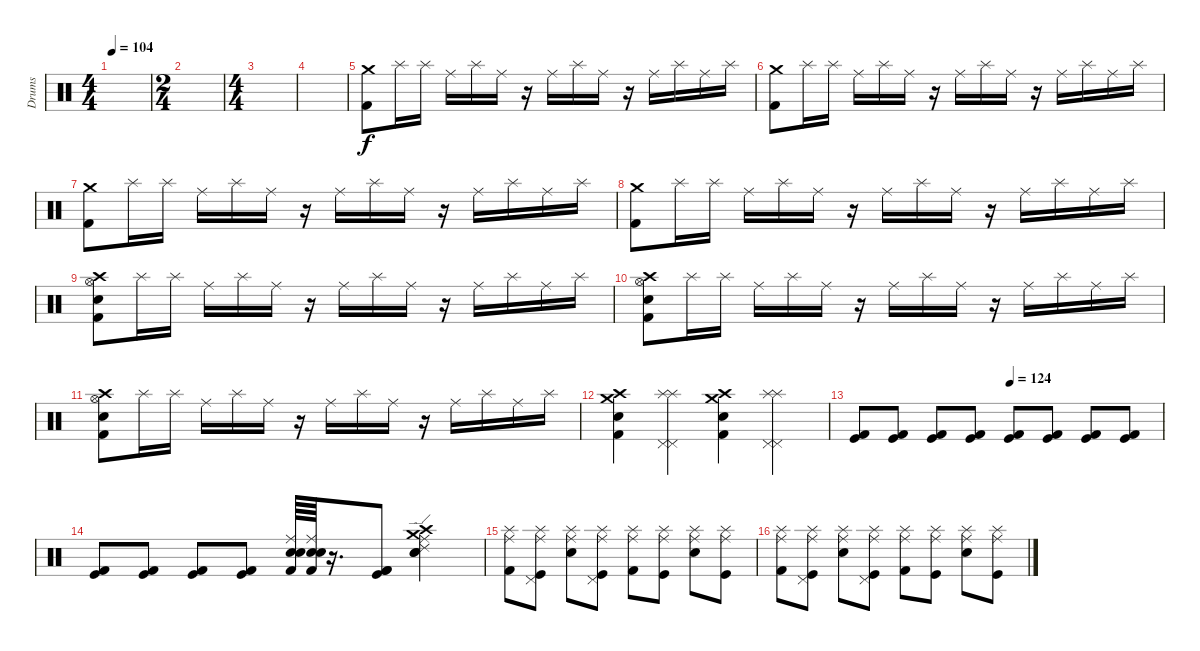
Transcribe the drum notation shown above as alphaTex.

\track ("Drums " "Drums ") {instrument percussion}
\staff {score}
\articulation defaults
\ts (4 4)
\section ("" "")
\tempo 104
\clef neutral
\ks c
|
\ts (2 4)
|
\ts (4 4)
|
|
("Crash medium (hit)" "Kick (hit) 2").8 "Splash (hit)".16 "Splash (hit)".16 "Ride (middle)".16 "Splash (hit)".16 "Ride (middle)".16 r.16 "Ride (middle)".16 "Splash (hit)".16 "Ride (middle)".16 r.16 "Ride (middle)".16 "Splash (hit)".16 "Ride (middle)".16 "Splash (hit)".16 |
("Crash medium (hit)" "Kick (hit) 2").8 "Splash (hit)".16 "Splash (hit)".16 "Ride (middle)".16 "Splash (hit)".16 "Ride (middle)".16 r.16 "Ride (middle)".16 "Splash (hit)".16 "Ride (middle)".16 r.16 "Ride (middle)".16 "Splash (hit)".16 "Ride (middle)".16 "Splash (hit)".16 |
("Crash medium (hit)" "Kick (hit) 2").8 "Splash (hit)".16 "Splash (hit)".16 "Ride (middle)".16 "Splash (hit)".16 "Ride (middle)".16 r.16 "Ride (middle)".16 "Splash (hit)".16 "Ride (middle)".16 r.16 "Ride (middle)".16 "Splash (hit)".16 "Ride (middle)".16 "Splash (hit)".16 |
("Crash medium (hit)" "Kick (hit) 2").8 "Splash (hit)".16 "Splash (hit)".16 "Ride (middle)".16 "Splash (hit)".16 "Ride (middle)".16 r.16 "Ride (middle)".16 "Splash (hit)".16 "Ride (middle)".16 r.16 "Ride (middle)".16 "Splash (hit)".16 "Ride (middle)".16 "Splash (hit)".16 |
("Snare (hit) 2" "Kick (hit) 2" "Hi-Hat (open)" "Crash high (hit)").8 "Splash (hit)".16 "Splash (hit)".16 "Ride (middle)".16 "Splash (hit)".16 "Ride (middle)".16 r.16 "Ride (middle)".16 "Splash (hit)".16 "Ride (middle)".16 r.16 "Ride (middle)".16 "Splash (hit)".16 "Ride (middle)".16 "Splash (hit)".16 |
("Snare (hit) 2" "Kick (hit) 2" "Hi-Hat (open)" "Crash high (hit)").8 "Splash (hit)".16 "Splash (hit)".16 "Ride (middle)".16 "Splash (hit)".16 "Ride (middle)".16 r.16 "Ride (middle)".16 "Splash (hit)".16 "Ride (middle)".16 r.16 "Ride (middle)".16 "Splash (hit)".16 "Ride (middle)".16 "Splash (hit)".16 |
("Snare (hit) 2" "Kick (hit) 2" "Hi-Hat (open)" "Crash high (hit)").8 "Splash (hit)".16 "Splash (hit)".16 "Ride (middle)".16 "Splash (hit)".16 "Ride (middle)".16 r.16 "Ride (middle)".16 "Splash (hit)".16 "Ride (middle)".16 r.16 "Ride (middle)".16 "Splash (hit)".16 "Ride (middle)".16 "Splash (hit)".16 |
("Crash medium (hit)" "Crash high (hit)" "Snare (hit) 2" "Kick (hit) 2").4 ("Splash (hit)" "Splash (hit)" "Pedal Hi-Hat (hit)" "Pedal Hi-Hat (hit)").4 ("Crash medium (hit)" "Crash high (hit)" "Snare (hit) 2" "Kick (hit) 2").4 ("Pedal Hi-Hat (hit)" "Pedal Hi-Hat (hit)" "Splash (hit)" "Splash (hit)").4 |
\tempo (124 0.5)
("Kick (hit)" "Kick (hit) 2").8 ("Kick (hit)" "Kick (hit) 2").8 ("Kick (hit)" "Kick (hit) 2").8 ("Kick (hit)" "Kick (hit) 2").8 ("Kick (hit)" "Kick (hit) 2").8 ("Kick (hit)" "Kick (hit) 2").8 ("Kick (hit)" "Kick (hit) 2").8 ("Kick (hit)" "Kick (hit) 2").8 |
("Kick (hit)" "Kick (hit) 2").8 ("Kick (hit)" "Kick (hit) 2").8 ("Kick (hit)" "Kick (hit) 2").8 ("Kick (hit)" "Kick (hit) 2").8 ("Ride (middle)" "Electric Snare (hit)" "Snare (hit) 2" "Kick (hit) 2").64 ("Ride (middle)" "Electric Snare (hit)" "Snare (hit) 2" "Kick (hit) 2").64 r.16{d} ("Kick (hit)" "Kick (hit) 2" "Kick (hit) 2").8 ("Ride (edge) 2" "Crash high (hit)" "Electric Snare (hit)" "Ride (middle)" "Snare (hit) 2" "Crash medium (hit)").4 |
("Splash (hit)" "Ride (middle)" "Kick (hit) 2").8 ("Splash (hit)" "Ride (middle)" "Kick (hit)" "Pedal Hi-Hat (hit)").8 ("Splash (hit)" "Ride (middle)" "Electric Snare (hit)").8 ("Splash (hit)" "Ride (middle)" "Kick (hit)" "Pedal Hi-Hat (hit)").8 ("Splash (hit)" "Ride (middle)" "Kick (hit) 2").8 ("Splash (hit)" "Ride (middle)" "Kick (hit)").8 ("Splash (hit)" "Ride (middle)" "Electric Snare (hit)").8 ("Splash (hit)" "Ride (middle)" "Kick (hit)").8 |
("Splash (hit)" "Ride (middle)" "Kick (hit) 2").8 ("Splash (hit)" "Ride (middle)" "Kick (hit)" "Pedal Hi-Hat (hit)").8 ("Splash (hit)" "Ride (middle)" "Electric Snare (hit)").8 ("Splash (hit)" "Ride (middle)" "Kick (hit)" "Pedal Hi-Hat (hit)").8 ("Splash (hit)" "Ride (middle)" "Kick (hit) 2").8 ("Splash (hit)" "Ride (middle)" "Kick (hit)").8 ("Splash (hit)" "Ride (middle)" "Electric Snare (hit)").8 ("Splash (hit)" "Ride (middle)" "Kick (hit)").8
